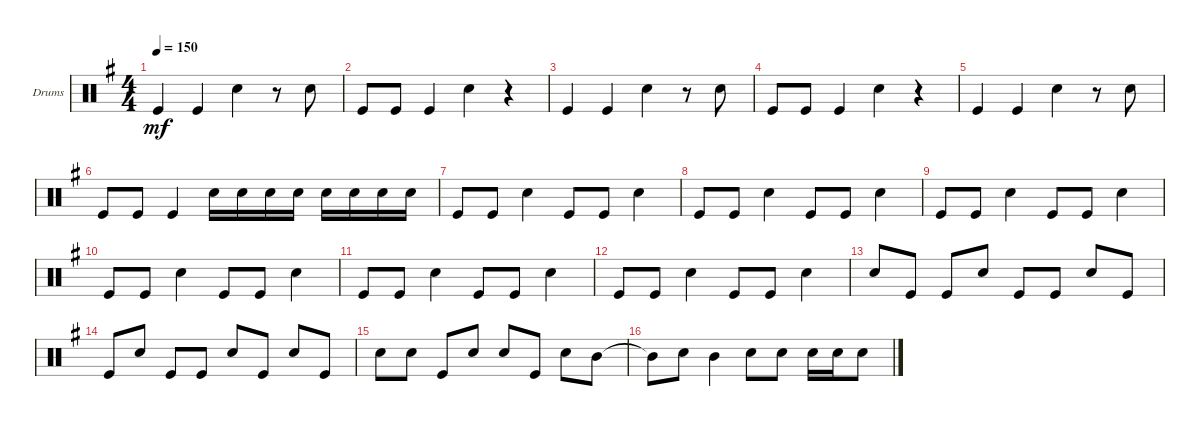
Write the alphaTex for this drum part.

\defaultSystemsLayout 4
\bracketExtendMode groupsimilarinstruments
\firstSystemTrackNameOrientation horizontal
\otherSystemsTrackNameOrientation horizontal
\track ("Drumkit" "Drums") {instrument percussion}
\staff {score}
\articulation defaults
\ts (4 4)
\tempo 150
\clef neutral
\ks g "Kick (hit)".4{dy mf} "Kick (hit)".4 "Snare (hit) 2".4
r.8 "Snare (hit) 2".8 |
"Kick (hit)".8 "Kick (hit)".8 "Kick (hit)".4 "Snare (hit) 2".4 r.4 |
"Kick (hit)".4 "Kick (hit)".4 "Snare (hit) 2".4 r.8 "Snare (hit) 2".8 |
"Kick (hit)".8 "Kick (hit)".8 "Kick (hit)".4 "Snare (hit) 2".4 r.4 |
"Kick (hit)".4 "Kick (hit)".4 "Snare (hit) 2".4 r.8 "Snare (hit) 2".8 |
"Kick (hit)".8 "Kick (hit)".8 "Kick (hit)".4 "Snare (hit) 2".16 "Snare (hit) 2".16 "Snare (hit) 2".16 "Snare (hit) 2".16 "Snare (hit) 2".16 "Snare (hit) 2".16 "Snare (hit) 2".16 "Snare (hit) 2".16 |
"Kick (hit)".8 "Kick (hit)".8 "Snare (hit) 2".4 "Kick (hit)".8 "Kick (hit)".8 "Snare (hit) 2".4 |
"Kick (hit)".8 "Kick (hit)".8 "Snare (hit) 2".4 "Kick (hit)".8 "Kick (hit)".8 "Snare (hit) 2".4 |
"Kick (hit)".8 "Kick (hit)".8 "Snare (hit) 2".4 "Kick (hit)".8 "Kick (hit)".8 "Snare (hit) 2".4 |
"Kick (hit)".8 "Kick (hit)".8 "Snare (hit) 2".4 "Kick (hit)".8 "Kick (hit)".8 "Snare (hit) 2".4 |
"Kick (hit)".8 "Kick (hit)".8 "Snare (hit) 2".4 "Kick (hit)".8 "Kick (hit)".8 "Snare (hit) 2".4 |
"Kick (hit)".8 "Kick (hit)".8 "Snare (hit) 2".4 "Kick (hit)".8 "Kick (hit)".8 "Snare (hit) 2".4 |
"Snare (hit) 2".8 "Kick (hit)".8 "Kick (hit)".8 "Snare (hit) 2".8 "Kick (hit)".8 "Kick (hit)".8 "Snare (hit) 2".8 "Kick (hit)".8 |
"Kick (hit)".8 "Snare (hit) 2".8 "Kick (hit)".8 "Kick (hit)".8 "Snare (hit) 2".8 "Kick (hit)".8 "Snare (hit) 2".8 "Kick (hit)".8 |
"Snare (hit) 2".8 "Snare (hit) 2".8 "Kick (hit)".8 "Snare (hit) 2".8 "Snare (hit) 2".8 "Kick (hit)".8 "Snare (hit) 2".8 "Mid Tom (hit)".8 |
"Mid Tom (hit)"{t}.8 "Snare (hit) 2".8 "Mid Tom (hit)".4 "Snare (hit) 2".8 "Snare (hit) 2".8 "Snare (hit) 2".16 "Snare (hit) 2".16 "Snare (hit) 2".8
